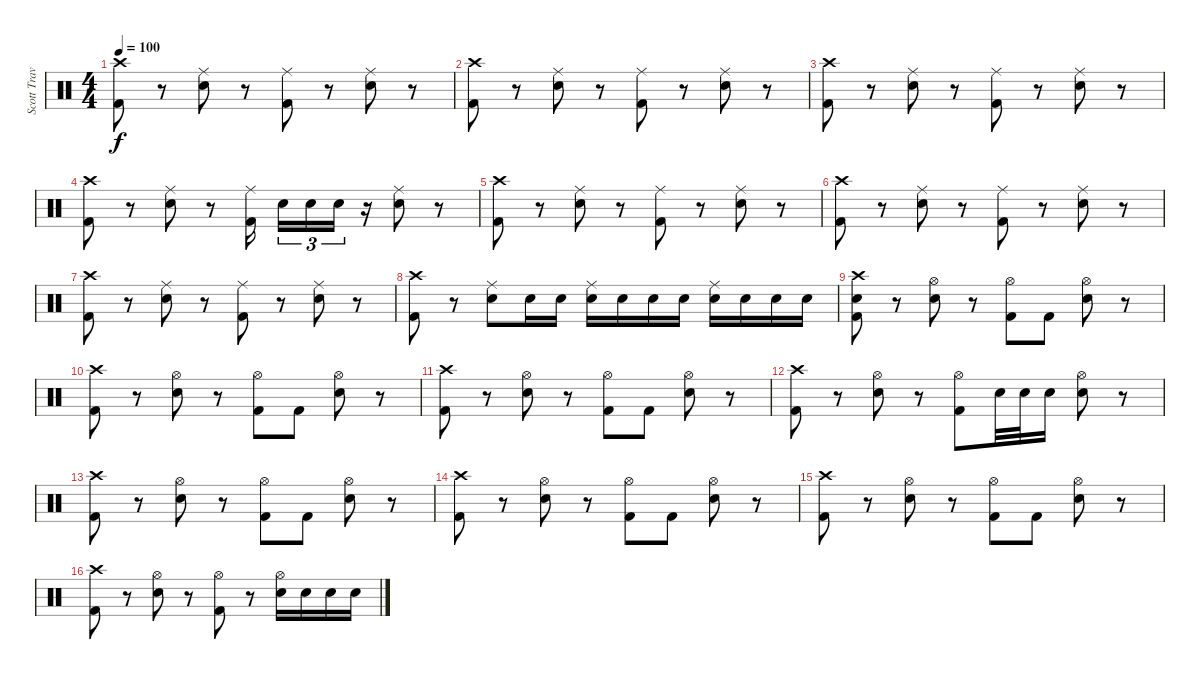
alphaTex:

\track ("Scott Travis" "Scott Trav") {instrument percussion}
\staff {score}
\articulation defaults
\ts (4 4)
\tempo 100
\clef neutral
\ks c
("Crash high (hit)" "Kick (hit) 2").8{dy f} r.8 ("Ride (middle)" "Electric Snare (hit)").8 r.8 ("Ride (middle)" "Kick (hit) 2").8 r.8 ("Ride (middle)" "Electric Snare (hit)").8 r.8 |
("Crash high (hit)" "Kick (hit) 2").8 r.8 ("Ride (middle)" "Electric Snare (hit)").8 r.8 ("Ride (middle)" "Kick (hit) 2").8 r.8 ("Ride (middle)" "Electric Snare (hit)").8 r.8 |
("Crash high (hit)" "Kick (hit) 2").8 r.8 ("Ride (middle)" "Electric Snare (hit)").8 r.8 ("Ride (middle)" "Kick (hit) 2").8 r.8 ("Ride (middle)" "Electric Snare (hit)").8 r.8 |
("Crash high (hit)" "Kick (hit) 2").8 r.8 ("Ride (middle)" "Electric Snare (hit)").8 r.8 ("Ride (middle)" "Kick (hit) 2").16 "Snare (hit) 2".16{tu (3 2)} "Snare (hit) 2".16{tu (3 2)} "Snare (hit) 2".16{tu (3 2)} r.16 ("Ride (middle)" "Electric Snare (hit)").8 r.8 |
("Crash high (hit)" "Kick (hit) 2").8 r.8 ("Ride (middle)" "Electric Snare (hit)").8 r.8 ("Ride (middle)" "Kick (hit) 2").8 r.8 ("Ride (middle)" "Electric Snare (hit)").8 r.8 |
("Crash high (hit)" "Kick (hit) 2").8 r.8 ("Ride (middle)" "Electric Snare (hit)").8 r.8 ("Ride (middle)" "Kick (hit) 2").8 r.8 ("Ride (middle)" "Electric Snare (hit)").8 r.8 |
("Crash high (hit)" "Kick (hit) 2").8 r.8 ("Ride (middle)" "Electric Snare (hit)").8 r.8 ("Ride (middle)" "Kick (hit) 2").8 r.8 ("Ride (middle)" "Electric Snare (hit)").8 r.8 |
("Crash high (hit)" "Kick (hit) 2").8 r.8 ("Ride (middle)" "Electric Snare (hit)").8 "Electric Snare (hit)".16 "Electric Snare (hit)".16 ("Ride (middle)" "Electric Snare (hit)").16 "Electric Snare (hit)".16 "Electric Snare (hit)".16 "Electric Snare (hit)".16 ("Ride (middle)" "Electric Snare (hit)").16 "Electric Snare (hit)".16 "Electric Snare (hit)".16 "Electric Snare (hit)".16 |
("Crash high (hit)" "Kick (hit) 2" "Electric Snare (hit)").8 r.8 ("Hi-Hat (open)" "Electric Snare (hit)").8 r.8 ("Hi-Hat (open)" "Kick (hit) 2").8 "Kick (hit) 2".8 ("Hi-Hat (open)" "Electric Snare (hit)").8 r.8 |
("Crash high (hit)" "Kick (hit) 2").8 r.8 ("Hi-Hat (open)" "Electric Snare (hit)").8 r.8 ("Hi-Hat (open)" "Kick (hit) 2").8 "Kick (hit) 2".8 ("Hi-Hat (open)" "Electric Snare (hit)").8 r.8 |
("Crash high (hit)" "Kick (hit) 2").8 r.8 ("Hi-Hat (open)" "Electric Snare (hit)").8 r.8 ("Hi-Hat (open)" "Kick (hit) 2").8 "Kick (hit) 2".8 ("Hi-Hat (open)" "Electric Snare (hit)").8 r.8 |
("Crash high (hit)" "Kick (hit) 2").8 r.8 ("Hi-Hat (open)" "Electric Snare (hit)").8 r.8 ("Hi-Hat (open)" "Kick (hit) 2").8 "Snare (hit) 2".32 "Snare (hit) 2".32 "Snare (hit) 2".16 ("Hi-Hat (open)" "Electric Snare (hit)").8 r.8 |
("Crash high (hit)" "Kick (hit) 2").8 r.8 ("Hi-Hat (open)" "Electric Snare (hit)").8 r.8 ("Hi-Hat (open)" "Kick (hit) 2").8 "Kick (hit) 2".8 ("Hi-Hat (open)" "Electric Snare (hit)").8 r.8 |
("Crash high (hit)" "Kick (hit) 2").8 r.8 ("Hi-Hat (open)" "Electric Snare (hit)").8 r.8 ("Hi-Hat (open)" "Kick (hit) 2").8 "Kick (hit) 2".8 ("Hi-Hat (open)" "Electric Snare (hit)").8 r.8 |
("Crash high (hit)" "Kick (hit) 2").8 r.8 ("Hi-Hat (open)" "Electric Snare (hit)").8 r.8 ("Hi-Hat (open)" "Kick (hit) 2").8 "Kick (hit) 2".8 ("Hi-Hat (open)" "Electric Snare (hit)").8 r.8 |
("Crash high (hit)" "Kick (hit) 2").8 r.8 ("Hi-Hat (open)" "Electric Snare (hit)").8 r.8 ("Hi-Hat (open)" "Kick (hit) 2").8 r.8 ("Hi-Hat (open)" "Electric Snare (hit)").16 "Electric Snare (hit)".16 "Electric Snare (hit)".16 "Electric Snare (hit)".16
